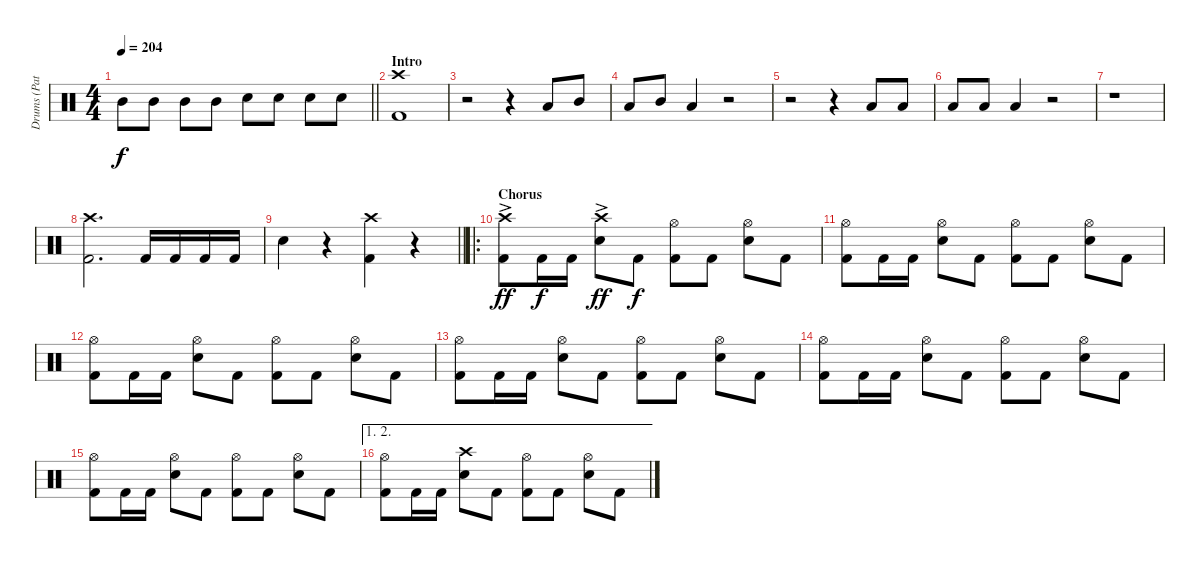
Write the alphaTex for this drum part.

\track ("Drums (Patrick Johansson)" "Drums (Pat") {instrument percussion}
\staff {score}
\articulation defaults
\ts (4 4)
\tempo 204
\clef neutral
\barLineRight lightlight
\ks c "Mid Tom (hit)".8{dy f} "Mid Tom (hit)".8 "Mid Tom (hit)".8 "Mid Tom (hit)".8 "Electric Snare (hit)".8 "Electric Snare (hit)".8 "Electric Snare (hit)".8 "Electric Snare (hit)".8
|
\section ("" "Intro")
("Crash high (hit)" "Kick (hit) 2").1 |
r.2 r.4 "Low Tom (hit)".8 "Mid Tom (hit)".8 |
"Low Tom (hit)".8 "Mid Tom (hit)".8 "Low Tom (hit)".4 r.2 |
r.2 r.4 "Low Tom (hit)".8 "Low Tom (hit)".8 |
"Low Tom (hit)".8 "Low Tom (hit)".8 "Low Tom (hit)".4 r.2 |
r.1 |
("Crash high (hit)" "Kick (hit) 2").2{d} "Kick (hit) 2".16 "Kick (hit) 2".16 "Kick (hit) 2".16 "Kick (hit) 2".16 |
\barLineRight lightlight "Electric Snare (hit)".4
r.4 ("Crash high (hit)" "Kick (hit) 2").4 r.4 |
\ro
\section ("" "Chorus")
("Crash high (hit)"{ac} "Kick (hit) 2").8{dy ff} "Kick (hit) 2".16{dy f} "Kick (hit) 2".16 ("Crash high (hit)"{ac} "Electric Snare (hit)").8{dy ff} "Kick (hit) 2".8{dy f} ("Hi-Hat (open)" "Kick (hit) 2").8 "Kick (hit) 2".8 ("Electric Snare (hit)" "Hi-Hat (open)").8 "Kick (hit) 2".8 |
("Hi-Hat (open)" "Kick (hit) 2").8 "Kick (hit) 2".16 "Kick (hit) 2".16 ("Electric Snare (hit)" "Hi-Hat (open)").8 "Kick (hit) 2".8 ("Hi-Hat (open)" "Kick (hit) 2").8 "Kick (hit) 2".8 ("Electric Snare (hit)" "Hi-Hat (open)").8 "Kick (hit) 2".8 |
("Hi-Hat (open)" "Kick (hit) 2").8 "Kick (hit) 2".16 "Kick (hit) 2".16 ("Electric Snare (hit)" "Hi-Hat (open)").8 "Kick (hit) 2".8 ("Hi-Hat (open)" "Kick (hit) 2").8 "Kick (hit) 2".8 ("Electric Snare (hit)" "Hi-Hat (open)").8 "Kick (hit) 2".8 |
("Hi-Hat (open)" "Kick (hit) 2").8 "Kick (hit) 2".16 "Kick (hit) 2".16 ("Electric Snare (hit)" "Hi-Hat (open)").8 "Kick (hit) 2".8 ("Hi-Hat (open)" "Kick (hit) 2").8 "Kick (hit) 2".8 ("Electric Snare (hit)" "Hi-Hat (open)").8 "Kick (hit) 2".8 |
("Hi-Hat (open)" "Kick (hit) 2").8 "Kick (hit) 2".16 "Kick (hit) 2".16 ("Electric Snare (hit)" "Hi-Hat (open)").8 "Kick (hit) 2".8 ("Hi-Hat (open)" "Kick (hit) 2").8 "Kick (hit) 2".8 ("Electric Snare (hit)" "Hi-Hat (open)").8 "Kick (hit) 2".8 |
("Hi-Hat (open)" "Kick (hit) 2").8 "Kick (hit) 2".16 "Kick (hit) 2".16 ("Electric Snare (hit)" "Hi-Hat (open)").8 "Kick (hit) 2".8 ("Hi-Hat (open)" "Kick (hit) 2").8 "Kick (hit) 2".8 ("Electric Snare (hit)" "Hi-Hat (open)").8 "Kick (hit) 2".8 |
\ae (1 2)
("Hi-Hat (open)" "Kick (hit) 2").8 "Kick (hit) 2".16 "Kick (hit) 2".16 ("Crash high (hit)" "Electric Snare (hit)").8 "Kick (hit) 2".8 ("Hi-Hat (open)" "Kick (hit) 2").8 "Kick (hit) 2".8 ("Electric Snare (hit)" "Hi-Hat (open)").8 "Kick (hit) 2".8
